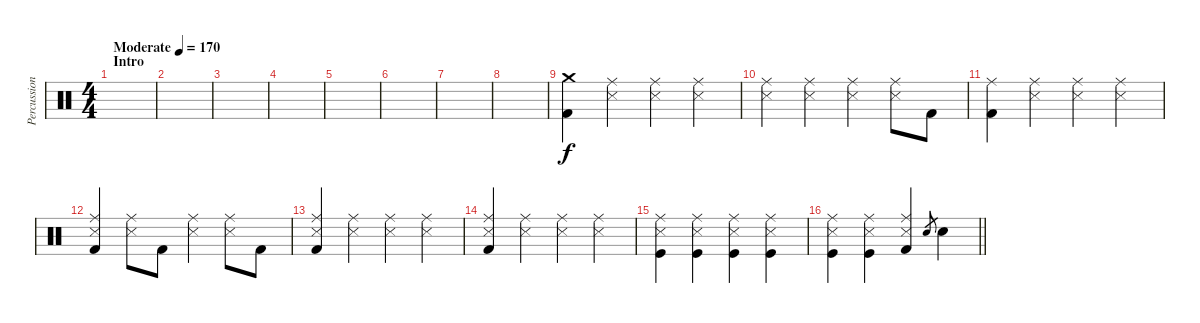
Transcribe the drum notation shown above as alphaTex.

\track ("Percussions" "Percussion") {instrument percussion}
\staff {score}
\articulation defaults
\ts (4 4)
\section ("" "Intro")
\tempo (170 "Moderate")
\clef neutral
\ks c
|
|
|
|
|
|
|
|
("Crash medium (hit)" "Kick (hit) 2").4 ("Ride (middle)" "Snare (side stick) 3").4 ("Ride (middle)" "Snare (side stick) 3").4 ("Ride (middle)" "Snare (side stick) 3").4 |
("Ride (middle)" "Snare (side stick) 3").4 ("Ride (middle)" "Snare (side stick) 3").4 ("Ride (middle)" "Snare (side stick) 3").4 ("Ride (middle)" "Snare (side stick) 3").8 "Kick (hit) 2".8 |
("Ride (middle)" "Kick (hit) 2").4 ("Ride (middle)" "Snare (side stick) 3").4 ("Ride (middle)" "Snare (side stick) 3").4 ("Ride (middle)" "Snare (side stick) 3").4 |
("Ride (middle)" "Snare (side stick) 3" "Kick (hit) 2").4 ("Ride (middle)" "Snare (side stick) 3").8 "Kick (hit) 2".8 ("Ride (middle)" "Snare (side stick) 3").4 ("Ride (middle)" "Snare (side stick) 3").8 "Kick (hit) 2".8 |
("Ride (middle)" "Snare (side stick) 3" "Kick (hit) 2").4 ("Ride (middle)" "Snare (side stick) 3").4 ("Ride (middle)" "Snare (side stick) 3").4 ("Ride (middle)" "Snare (side stick) 3").4 |
("Ride (middle)" "Snare (side stick) 3" "Kick (hit) 2").4 ("Ride (middle)" "Snare (side stick) 3").4 ("Ride (middle)" "Snare (side stick) 3").4 ("Ride (middle)" "Snare (side stick) 3").4 |
("Ride (middle)" "Snare (side stick) 3" "Kick (hit)").4 ("Ride (middle)" "Snare (side stick) 3" "Kick (hit)").4 ("Ride (middle)" "Snare (side stick) 3" "Kick (hit)").4 ("Ride (middle)" "Snare (side stick) 3" "Kick (hit)").4 |
\barLineRight lightlight
("Ride (middle)" "Snare (side stick) 3" "Kick (hit)").4 ("Ride (middle)" "Snare (side stick) 3" "Kick (hit)").4 ("Ride (middle)" "Snare (side stick) 3" "Kick (hit) 2").4 "Electric Snare (hit)".8{gr} "Electric Snare (hit)".4
